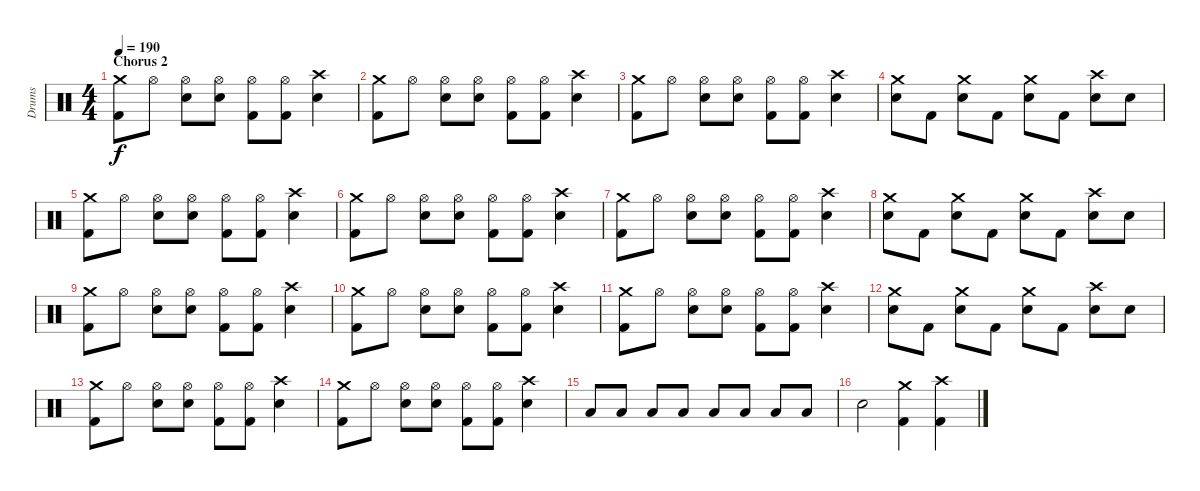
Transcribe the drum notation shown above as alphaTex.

\track ("Drums" "Drums") {instrument percussion}
\staff {score}
\articulation defaults
\ts (4 4)
\section ("" "Chorus 2")
\tempo 190
\clef neutral
\ks c
("Crash medium (hit)" "Kick (hit) 2").8{dy f} "Hi-Hat (open)".8 ("Hi-Hat (open)" "Electric Snare (hit)").8 ("Hi-Hat (open)" "Electric Snare (hit)").8 ("Hi-Hat (open)" "Kick (hit) 2").8 ("Hi-Hat (open)" "Kick (hit) 2").8 ("Crash high (hit)" "Electric Snare (hit)").4 |
("Crash medium (hit)" "Kick (hit) 2").8 "Hi-Hat (open)".8 ("Hi-Hat (open)" "Electric Snare (hit)").8 ("Hi-Hat (open)" "Electric Snare (hit)").8 ("Hi-Hat (open)" "Kick (hit) 2").8 ("Hi-Hat (open)" "Kick (hit) 2").8 ("Crash high (hit)" "Electric Snare (hit)").4 |
("Crash medium (hit)" "Kick (hit) 2").8 "Hi-Hat (open)".8 ("Hi-Hat (open)" "Electric Snare (hit)").8 ("Hi-Hat (open)" "Electric Snare (hit)").8 ("Hi-Hat (open)" "Kick (hit) 2").8 ("Hi-Hat (open)" "Kick (hit) 2").8 ("Crash high (hit)" "Electric Snare (hit)").4 |
("Crash medium (hit)" "Electric Snare (hit)").8 "Kick (hit) 2".8 ("Crash medium (hit)" "Electric Snare (hit)").8 "Kick (hit) 2".8 ("Crash medium (hit)" "Electric Snare (hit)").8 "Kick (hit) 2".8 ("Crash high (hit)" "Electric Snare (hit)").8 "Electric Snare (hit)".8 |
("Crash medium (hit)" "Kick (hit) 2").8 "Hi-Hat (open)".8 ("Hi-Hat (open)" "Electric Snare (hit)").8 ("Hi-Hat (open)" "Electric Snare (hit)").8 ("Hi-Hat (open)" "Kick (hit) 2").8 ("Hi-Hat (open)" "Kick (hit) 2").8 ("Crash high (hit)" "Electric Snare (hit)").4 |
("Crash medium (hit)" "Kick (hit) 2").8 "Hi-Hat (open)".8 ("Hi-Hat (open)" "Electric Snare (hit)").8 ("Hi-Hat (open)" "Electric Snare (hit)").8 ("Hi-Hat (open)" "Kick (hit) 2").8 ("Hi-Hat (open)" "Kick (hit) 2").8 ("Crash high (hit)" "Electric Snare (hit)").4 |
("Crash medium (hit)" "Kick (hit) 2").8 "Hi-Hat (open)".8 ("Hi-Hat (open)" "Electric Snare (hit)").8 ("Hi-Hat (open)" "Electric Snare (hit)").8 ("Hi-Hat (open)" "Kick (hit) 2").8 ("Hi-Hat (open)" "Kick (hit) 2").8 ("Crash high (hit)" "Electric Snare (hit)").4 |
("Crash medium (hit)" "Electric Snare (hit)").8 "Kick (hit) 2".8 ("Crash medium (hit)" "Electric Snare (hit)").8 "Kick (hit) 2".8 ("Crash medium (hit)" "Electric Snare (hit)").8 "Kick (hit) 2".8 ("Crash high (hit)" "Electric Snare (hit)").8 "Electric Snare (hit)".8 |
("Crash medium (hit)" "Kick (hit) 2").8 "Hi-Hat (open)".8 ("Hi-Hat (open)" "Electric Snare (hit)").8 ("Hi-Hat (open)" "Electric Snare (hit)").8 ("Hi-Hat (open)" "Kick (hit) 2").8 ("Hi-Hat (open)" "Kick (hit) 2").8 ("Crash high (hit)" "Electric Snare (hit)").4 |
("Crash medium (hit)" "Kick (hit) 2").8 "Hi-Hat (open)".8 ("Hi-Hat (open)" "Electric Snare (hit)").8 ("Hi-Hat (open)" "Electric Snare (hit)").8 ("Hi-Hat (open)" "Kick (hit) 2").8 ("Hi-Hat (open)" "Kick (hit) 2").8 ("Crash high (hit)" "Electric Snare (hit)").4 |
("Crash medium (hit)" "Kick (hit) 2").8 "Hi-Hat (open)".8 ("Hi-Hat (open)" "Electric Snare (hit)").8 ("Hi-Hat (open)" "Electric Snare (hit)").8 ("Hi-Hat (open)" "Kick (hit) 2").8 ("Hi-Hat (open)" "Kick (hit) 2").8 ("Crash high (hit)" "Electric Snare (hit)").4 |
("Crash medium (hit)" "Electric Snare (hit)").8 "Kick (hit) 2".8 ("Crash medium (hit)" "Electric Snare (hit)").8 "Kick (hit) 2".8 ("Crash medium (hit)" "Electric Snare (hit)").8 "Kick (hit) 2".8 ("Crash high (hit)" "Electric Snare (hit)").8 "Electric Snare (hit)".8 |
("Crash medium (hit)" "Kick (hit) 2").8 "Hi-Hat (open)".8 ("Hi-Hat (open)" "Electric Snare (hit)").8 ("Hi-Hat (open)" "Electric Snare (hit)").8 ("Hi-Hat (open)" "Kick (hit) 2").8 ("Hi-Hat (open)" "Kick (hit) 2").8 ("Crash high (hit)" "Electric Snare (hit)").4 |
("Crash medium (hit)" "Kick (hit) 2").8 "Hi-Hat (open)".8 ("Hi-Hat (open)" "Electric Snare (hit)").8 ("Hi-Hat (open)" "Electric Snare (hit)").8 ("Hi-Hat (open)" "Kick (hit) 2").8 ("Hi-Hat (open)" "Kick (hit) 2").8 ("Crash high (hit)" "Electric Snare (hit)").4 |
"Low Tom (hit)".8 "Low Tom (hit)".8 "Low Tom (hit)".8 "Low Tom (hit)".8 "Low Tom (hit)".8 "Low Tom (hit)".8 "Low Tom (hit)".8 "Low Tom (hit)".8 |
"Electric Snare (hit)".2 ("Crash medium (hit)" "Kick (hit) 2").4 ("Crash high (hit)" "Kick (hit) 2").4
